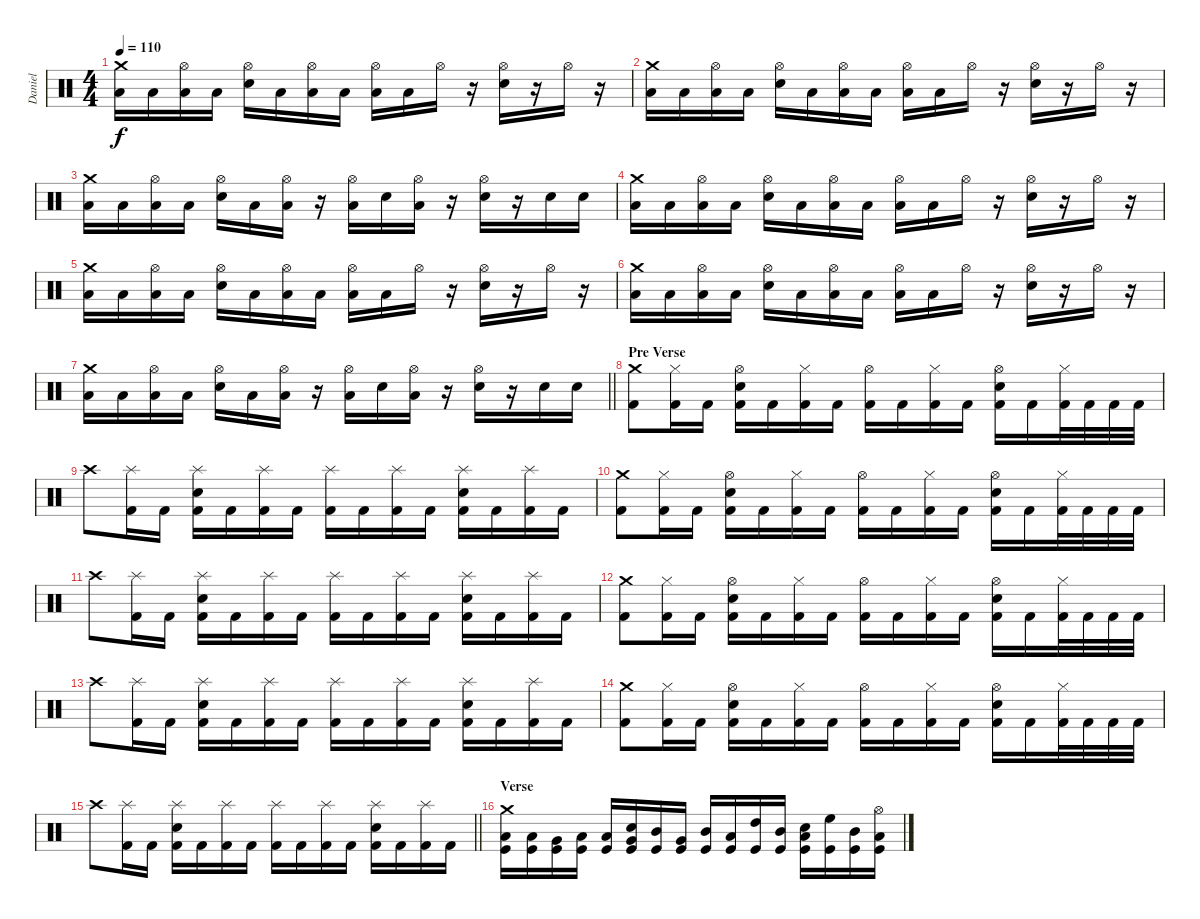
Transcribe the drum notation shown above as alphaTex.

\track ("Daniel" "Daniel") {instrument percussion}
\staff {score}
\articulation defaults
\ts (4 4)
\tempo 110
\clef neutral
\ks c
("Crash medium (hit)" "Low Floor Tom (hit)").16{dy f} "Low Floor Tom (hit)".16 ("Hi-Hat (open)" "Low Floor Tom (hit)").16 "Low Floor Tom (hit)".16 ("Hi-Hat (open)" "Snare (hit) 2").16 "Low Floor Tom (hit)".16 ("Hi-Hat (open)" "Low Floor Tom (hit)").16 "Low Floor Tom (hit)".16 ("Hi-Hat (open)" "Low Floor Tom (hit)").16 "Low Floor Tom (hit)".16 "Hi-Hat (open)".16 r.16 ("Hi-Hat (open)" "Snare (hit) 2").16 r.16 "Hi-Hat (open)".16 r.16 |
("Crash medium (hit)" "Low Floor Tom (hit)").16 "Low Floor Tom (hit)".16 ("Hi-Hat (open)" "Low Floor Tom (hit)").16 "Low Floor Tom (hit)".16 ("Hi-Hat (open)" "Snare (hit) 2").16 "Low Floor Tom (hit)".16 ("Hi-Hat (open)" "Low Floor Tom (hit)").16 "Low Floor Tom (hit)".16 ("Hi-Hat (open)" "Low Floor Tom (hit)").16 "Low Floor Tom (hit)".16 "Hi-Hat (open)".16 r.16 ("Hi-Hat (open)" "Snare (hit) 2").16 r.16 "Hi-Hat (open)".16 r.16 |
("Crash medium (hit)" "Low Floor Tom (hit)").16 "Low Floor Tom (hit)".16 ("Hi-Hat (open)" "Low Floor Tom (hit)").16 "Low Floor Tom (hit)".16 ("Hi-Hat (open)" "Snare (hit) 2").16 "Low Floor Tom (hit)".16 ("Hi-Hat (open)" "Low Floor Tom (hit)").16 r.16 ("Hi-Hat (open)" "Low Floor Tom (hit)").16 "Snare (hit) 2".16 ("Hi-Hat (open)" "Low Floor Tom (hit)").16 r.16 ("Hi-Hat (open)" "Snare (hit) 2").16 r.16 "Snare (hit) 2".16 "Snare (hit) 2".16 |
("Crash medium (hit)" "Low Floor Tom (hit)").16 "Low Floor Tom (hit)".16 ("Hi-Hat (open)" "Low Floor Tom (hit)").16 "Low Floor Tom (hit)".16 ("Hi-Hat (open)" "Snare (hit) 2").16 "Low Floor Tom (hit)".16 ("Hi-Hat (open)" "Low Floor Tom (hit)").16 "Low Floor Tom (hit)".16 ("Hi-Hat (open)" "Low Floor Tom (hit)").16 "Low Floor Tom (hit)".16 "Hi-Hat (open)".16 r.16 ("Hi-Hat (open)" "Snare (hit) 2").16 r.16 "Hi-Hat (open)".16 r.16 |
("Crash medium (hit)" "Low Floor Tom (hit)").16 "Low Floor Tom (hit)".16 ("Hi-Hat (open)" "Low Floor Tom (hit)").16 "Low Floor Tom (hit)".16 ("Hi-Hat (open)" "Snare (hit) 2").16 "Low Floor Tom (hit)".16 ("Hi-Hat (open)" "Low Floor Tom (hit)").16 "Low Floor Tom (hit)".16 ("Hi-Hat (open)" "Low Floor Tom (hit)").16 "Low Floor Tom (hit)".16 "Hi-Hat (open)".16 r.16 ("Hi-Hat (open)" "Snare (hit) 2").16 r.16 "Hi-Hat (open)".16 r.16 |
("Crash medium (hit)" "Low Floor Tom (hit)").16 "Low Floor Tom (hit)".16 ("Hi-Hat (open)" "Low Floor Tom (hit)").16 "Low Floor Tom (hit)".16 ("Hi-Hat (open)" "Snare (hit) 2").16 "Low Floor Tom (hit)".16 ("Hi-Hat (open)" "Low Floor Tom (hit)").16 "Low Floor Tom (hit)".16 ("Hi-Hat (open)" "Low Floor Tom (hit)").16 "Low Floor Tom (hit)".16 "Hi-Hat (open)".16 r.16 ("Hi-Hat (open)" "Snare (hit) 2").16 r.16 "Hi-Hat (open)".16 r.16 |
\barLineRight lightlight
("Crash medium (hit)" "Low Floor Tom (hit)").16 "Low Floor Tom (hit)".16 ("Hi-Hat (open)" "Low Floor Tom (hit)").16 "Low Floor Tom (hit)".16 ("Hi-Hat (open)" "Snare (hit) 2").16 "Low Floor Tom (hit)".16 ("Hi-Hat (open)" "Low Floor Tom (hit)").16 r.16 ("Hi-Hat (open)" "Low Floor Tom (hit)").16 "Snare (hit) 2".16 ("Hi-Hat (open)" "Low Floor Tom (hit)").16 r.16 ("Hi-Hat (open)" "Snare (hit) 2").16 r.16 "Snare (hit) 2".16 "Snare (hit) 2".16 |
\section ("" "Pre Verse")
("Crash medium (hit)" "Kick (hit) 2").8 ("Hi-Hat (closed)" "Kick (hit) 2").16 "Kick (hit) 2".16 ("Hi-Hat (open)" "Snare (hit) 2" "Kick (hit) 2").16 "Kick (hit) 2".16 ("Hi-Hat (closed)" "Kick (hit) 2").16 "Kick (hit) 2".16 ("Hi-Hat (open)" "Kick (hit) 2").16 "Kick (hit) 2".16 ("Hi-Hat (closed)" "Kick (hit) 2").16 "Kick (hit) 2".16 ("Hi-Hat (open)" "Snare (hit) 2" "Kick (hit) 2").16 "Kick (hit) 2".16 ("Hi-Hat (closed)" "Kick (hit) 2").32 "Kick (hit) 2".32 "Kick (hit) 2".32 "Kick (hit) 2".32 |
"Crash high (hit)".8 ("Splash (hit)" "Kick (hit) 2").16 "Kick (hit) 2".16 ("Splash (hit)" "Snare (hit) 2" "Kick (hit) 2").16 "Kick (hit) 2".16 ("Splash (hit)" "Kick (hit) 2").16 "Kick (hit) 2".16 ("Splash (hit)" "Kick (hit) 2").16 "Kick (hit) 2".16 ("Splash (hit)" "Kick (hit) 2").16 "Kick (hit) 2".16 ("Splash (hit)" "Snare (hit) 2" "Kick (hit) 2").16 "Kick (hit) 2".16 ("Splash (hit)" "Kick (hit) 2").16 "Kick (hit) 2".16 |
("Crash medium (hit)" "Kick (hit) 2").8 ("Hi-Hat (closed)" "Kick (hit) 2").16 "Kick (hit) 2".16 ("Hi-Hat (open)" "Snare (hit) 2" "Kick (hit) 2").16 "Kick (hit) 2".16 ("Hi-Hat (closed)" "Kick (hit) 2").16 "Kick (hit) 2".16 ("Hi-Hat (open)" "Kick (hit) 2").16 "Kick (hit) 2".16 ("Hi-Hat (closed)" "Kick (hit) 2").16 "Kick (hit) 2".16 ("Hi-Hat (open)" "Snare (hit) 2" "Kick (hit) 2").16 "Kick (hit) 2".16 ("Hi-Hat (closed)" "Kick (hit) 2").32 "Kick (hit) 2".32 "Kick (hit) 2".32 "Kick (hit) 2".32 |
"Crash high (hit)".8 ("Splash (hit)" "Kick (hit) 2").16 "Kick (hit) 2".16 ("Splash (hit)" "Snare (hit) 2" "Kick (hit) 2").16 "Kick (hit) 2".16 ("Splash (hit)" "Kick (hit) 2").16 "Kick (hit) 2".16 ("Splash (hit)" "Kick (hit) 2").16 "Kick (hit) 2".16 ("Splash (hit)" "Kick (hit) 2").16 "Kick (hit) 2".16 ("Splash (hit)" "Snare (hit) 2" "Kick (hit) 2").16 "Kick (hit) 2".16 ("Splash (hit)" "Kick (hit) 2").16 "Kick (hit) 2".16 |
("Crash medium (hit)" "Kick (hit) 2").8 ("Hi-Hat (closed)" "Kick (hit) 2").16 "Kick (hit) 2".16 ("Hi-Hat (open)" "Snare (hit) 2" "Kick (hit) 2").16 "Kick (hit) 2".16 ("Hi-Hat (closed)" "Kick (hit) 2").16 "Kick (hit) 2".16 ("Hi-Hat (open)" "Kick (hit) 2").16 "Kick (hit) 2".16 ("Hi-Hat (closed)" "Kick (hit) 2").16 "Kick (hit) 2".16 ("Hi-Hat (open)" "Snare (hit) 2" "Kick (hit) 2").16 "Kick (hit) 2".16 ("Hi-Hat (closed)" "Kick (hit) 2").32 "Kick (hit) 2".32 "Kick (hit) 2".32 "Kick (hit) 2".32 |
"Crash high (hit)".8 ("Splash (hit)" "Kick (hit) 2").16 "Kick (hit) 2".16 ("Splash (hit)" "Snare (hit) 2" "Kick (hit) 2").16 "Kick (hit) 2".16 ("Splash (hit)" "Kick (hit) 2").16 "Kick (hit) 2".16 ("Splash (hit)" "Kick (hit) 2").16 "Kick (hit) 2".16 ("Splash (hit)" "Kick (hit) 2").16 "Kick (hit) 2".16 ("Splash (hit)" "Snare (hit) 2" "Kick (hit) 2").16 "Kick (hit) 2".16 ("Splash (hit)" "Kick (hit) 2").16 "Kick (hit) 2".16 |
("Crash medium (hit)" "Kick (hit) 2").8 ("Hi-Hat (closed)" "Kick (hit) 2").16 "Kick (hit) 2".16 ("Hi-Hat (open)" "Snare (hit) 2" "Kick (hit) 2").16 "Kick (hit) 2".16 ("Hi-Hat (closed)" "Kick (hit) 2").16 "Kick (hit) 2".16 ("Hi-Hat (open)" "Kick (hit) 2").16 "Kick (hit) 2".16 ("Hi-Hat (closed)" "Kick (hit) 2").16 "Kick (hit) 2".16 ("Hi-Hat (open)" "Snare (hit) 2" "Kick (hit) 2").16 "Kick (hit) 2".16 ("Hi-Hat (closed)" "Kick (hit) 2").32 "Kick (hit) 2".32 "Kick (hit) 2".32 "Kick (hit) 2".32 |
\barLineRight lightlight "Crash high (hit)".8
("Splash (hit)" "Kick (hit) 2").16 "Kick (hit) 2".16 ("Splash (hit)" "Snare (hit) 2" "Kick (hit) 2").16 "Kick (hit) 2".16 ("Splash (hit)" "Kick (hit) 2").16 "Kick (hit) 2".16 ("Splash (hit)" "Kick (hit) 2").16 "Kick (hit) 2".16 ("Splash (hit)" "Kick (hit) 2").16 "Kick (hit) 2".16 ("Splash (hit)" "Snare (hit) 2" "Kick (hit) 2").16 "Kick (hit) 2".16 ("Splash (hit)" "Kick (hit) 2").16 "Kick (hit) 2".16 |
\section ("" "Verse")
("Kick (hit)" "Crash medium (hit)" "Low Tom (hit)").16 ("Kick (hit)" "Low Tom (hit)").16 ("Kick (hit)" "Very Low Tom (hit)").16 ("Kick (hit)" "Low Floor Tom (hit)").16 ("Kick (hit)" "Low Tom (hit)").16 ("Kick (hit)" "Snare (hit) 2" "Very Low Tom (hit)").16 ("Kick (hit)" "Mid Tom (hit)").16 ("Kick (hit)" "Very Low Tom (hit)").16 ("Kick (hit)" "Mid Tom (hit)").16 ("Kick (hit)" "Low Tom (hit)").16 ("Kick (hit)" "High Tom (hit)").16 ("Kick (hit)" "Mid Tom (hit)").16 ("Kick (hit)" "Snare (hit) 2" "Low Tom (hit)").16 ("Kick (hit)" "High Floor Tom (hit)").16 ("Kick (hit)" "Mid Tom (hit)").16 ("Kick (hit)" "Hi-Hat (open)" "Low Tom (hit)").16
